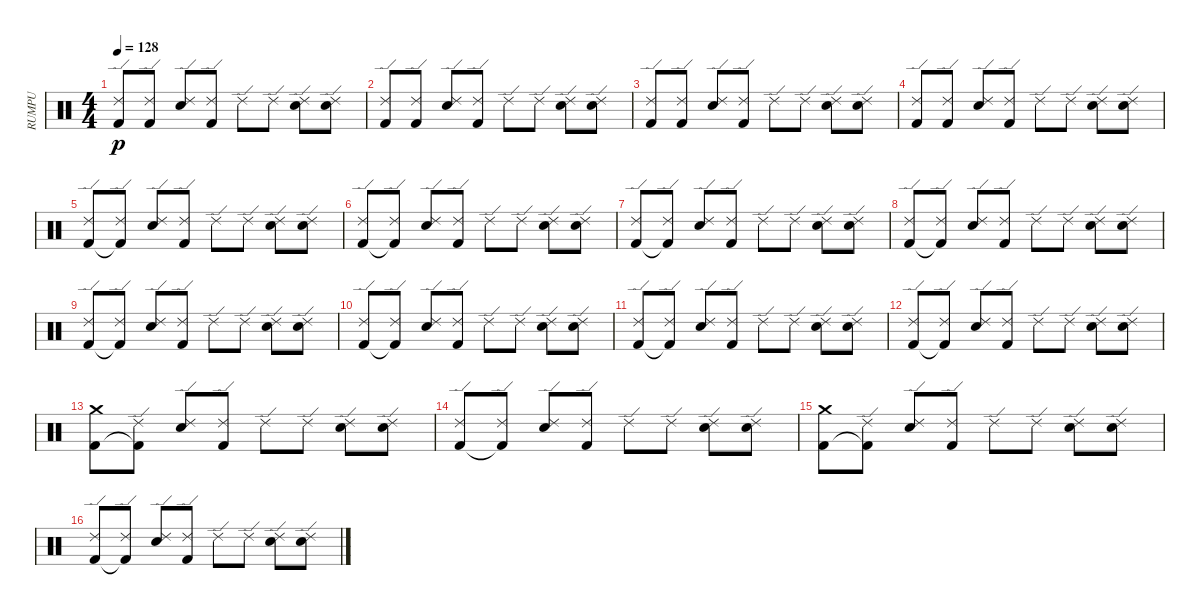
\track ("RUMPU" "RUMPU") {instrument percussion}
\staff {score}
\articulation defaults
\ts (4 4)
\tempo 128
\clef neutral
\ks c
("Ride (edge) 2" "Kick (hit) 2").8{dy p} ("Ride (edge) 2" "Kick (hit) 2").8 ("Ride (edge) 2" "Electric Snare (hit)").8 ("Ride (edge) 2" "Kick (hit) 2").8 "Ride (edge) 2".8 "Ride (edge) 2".8 ("Ride (edge) 2" "Electric Snare (hit)").8 ("Ride (edge) 2" "Electric Snare (hit)").8 |
("Ride (edge) 2" "Kick (hit) 2").8 ("Ride (edge) 2" "Kick (hit) 2").8 ("Ride (edge) 2" "Electric Snare (hit)").8 ("Ride (edge) 2" "Kick (hit) 2").8 "Ride (edge) 2".8 "Ride (edge) 2".8 ("Ride (edge) 2" "Electric Snare (hit)").8 ("Ride (edge) 2" "Electric Snare (hit)").8 |
("Ride (edge) 2" "Kick (hit) 2").8 ("Ride (edge) 2" "Kick (hit) 2").8 ("Ride (edge) 2" "Electric Snare (hit)").8 ("Ride (edge) 2" "Kick (hit) 2").8 "Ride (edge) 2".8 "Ride (edge) 2".8 ("Ride (edge) 2" "Electric Snare (hit)").8 ("Ride (edge) 2" "Electric Snare (hit)").8 |
("Ride (edge) 2" "Kick (hit) 2").8 ("Ride (edge) 2" "Kick (hit) 2").8 ("Ride (edge) 2" "Electric Snare (hit)").8 ("Ride (edge) 2" "Kick (hit) 2").8 "Ride (edge) 2".8 "Ride (edge) 2".8 ("Ride (edge) 2" "Electric Snare (hit)").8 ("Ride (edge) 2" "Electric Snare (hit)").8 |
("Ride (edge) 2" "Kick (hit) 2").8 ("Ride (edge) 2" "Kick (hit) 2"{t}).8 ("Ride (edge) 2" "Electric Snare (hit)").8 ("Ride (edge) 2" "Kick (hit) 2").8 "Ride (edge) 2".8 "Ride (edge) 2".8 ("Ride (edge) 2" "Electric Snare (hit)").8 ("Ride (edge) 2" "Electric Snare (hit)").8 |
("Ride (edge) 2" "Kick (hit) 2").8 ("Ride (edge) 2" "Kick (hit) 2"{t}).8 ("Ride (edge) 2" "Electric Snare (hit)").8 ("Ride (edge) 2" "Kick (hit) 2").8 "Ride (edge) 2".8 "Ride (edge) 2".8 ("Ride (edge) 2" "Electric Snare (hit)").8 ("Ride (edge) 2" "Electric Snare (hit)").8 |
("Ride (edge) 2" "Kick (hit) 2").8 ("Ride (edge) 2" "Kick (hit) 2"{t}).8 ("Ride (edge) 2" "Electric Snare (hit)").8 ("Ride (edge) 2" "Kick (hit) 2").8 "Ride (edge) 2".8 "Ride (edge) 2".8 ("Ride (edge) 2" "Electric Snare (hit)").8 ("Ride (edge) 2" "Electric Snare (hit)").8 |
("Ride (edge) 2" "Kick (hit) 2").8 ("Ride (edge) 2" "Kick (hit) 2"{t}).8 ("Ride (edge) 2" "Electric Snare (hit)").8 ("Ride (edge) 2" "Kick (hit) 2").8 "Ride (edge) 2".8 "Ride (edge) 2".8 ("Ride (edge) 2" "Electric Snare (hit)").8 ("Ride (edge) 2" "Electric Snare (hit)").8 |
("Ride (edge) 2" "Kick (hit) 2").8 ("Ride (edge) 2" "Kick (hit) 2"{t}).8 ("Ride (edge) 2" "Electric Snare (hit)").8 ("Ride (edge) 2" "Kick (hit) 2").8 "Ride (edge) 2".8 "Ride (edge) 2".8 ("Ride (edge) 2" "Electric Snare (hit)").8 ("Ride (edge) 2" "Electric Snare (hit)").8 |
("Ride (edge) 2" "Kick (hit) 2").8 ("Ride (edge) 2" "Kick (hit) 2"{t}).8 ("Ride (edge) 2" "Electric Snare (hit)").8 ("Ride (edge) 2" "Kick (hit) 2").8 "Ride (edge) 2".8 "Ride (edge) 2".8 ("Ride (edge) 2" "Electric Snare (hit)").8 ("Ride (edge) 2" "Electric Snare (hit)").8 |
("Ride (edge) 2" "Kick (hit) 2").8 ("Ride (edge) 2" "Kick (hit) 2"{t}).8 ("Ride (edge) 2" "Electric Snare (hit)").8 ("Ride (edge) 2" "Kick (hit) 2").8 "Ride (edge) 2".8 "Ride (edge) 2".8 ("Ride (edge) 2" "Electric Snare (hit)").8 ("Ride (edge) 2" "Electric Snare (hit)").8 |
("Ride (edge) 2" "Kick (hit) 2").8 ("Ride (edge) 2" "Kick (hit) 2"{t}).8 ("Ride (edge) 2" "Electric Snare (hit)").8 ("Ride (edge) 2" "Kick (hit) 2").8 "Ride (edge) 2".8 "Ride (edge) 2".8 ("Ride (edge) 2" "Electric Snare (hit)").8 ("Ride (edge) 2" "Electric Snare (hit)").8 |
("Crash medium (hit)" "Kick (hit) 2").8 ("Ride (edge) 2" "Kick (hit) 2"{t}).8 ("Ride (edge) 2" "Electric Snare (hit)").8 ("Ride (edge) 2" "Kick (hit) 2").8 "Ride (edge) 2".8 "Ride (edge) 2".8 ("Ride (edge) 2" "Electric Snare (hit)").8 ("Ride (edge) 2" "Electric Snare (hit)").8 |
("Ride (edge) 2" "Kick (hit) 2").8 ("Ride (edge) 2" "Kick (hit) 2"{t}).8 ("Ride (edge) 2" "Electric Snare (hit)").8 ("Ride (edge) 2" "Kick (hit) 2").8 "Ride (edge) 2".8 "Ride (edge) 2".8 ("Ride (edge) 2" "Electric Snare (hit)").8 ("Ride (edge) 2" "Electric Snare (hit)").8 |
("Crash medium (hit)" "Kick (hit) 2").8 ("Ride (edge) 2" "Kick (hit) 2"{t}).8 ("Ride (edge) 2" "Electric Snare (hit)").8 ("Ride (edge) 2" "Kick (hit) 2").8 "Ride (edge) 2".8 "Ride (edge) 2".8 ("Ride (edge) 2" "Electric Snare (hit)").8 ("Ride (edge) 2" "Electric Snare (hit)").8 |
("Ride (edge) 2" "Kick (hit) 2").8 ("Ride (edge) 2" "Kick (hit) 2"{t}).8 ("Ride (edge) 2" "Electric Snare (hit)").8 ("Ride (edge) 2" "Kick (hit) 2").8 "Ride (edge) 2".8 "Ride (edge) 2".8 ("Ride (edge) 2" "Electric Snare (hit)").8 ("Ride (edge) 2" "Electric Snare (hit)").8
